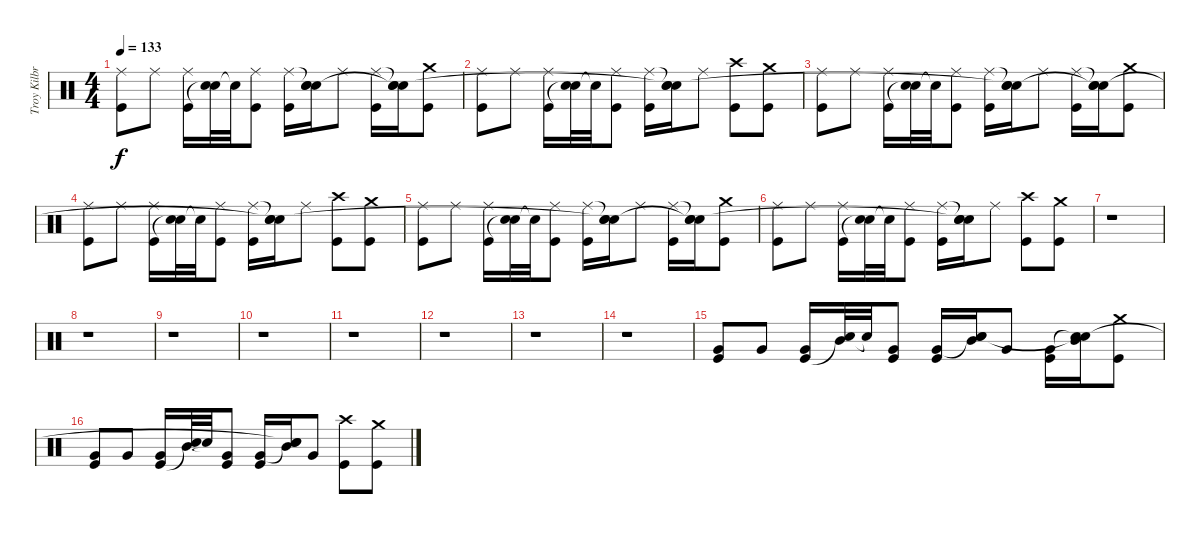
\track ("Troy Kilbride" "Troy Kilbr") {instrument percussion}
\staff {score}
\articulation defaults
\ts (4 4)
\tempo 133
\clef neutral
\ks c
("Ride (middle)" "Kick (hit)").8{dy f} "Ride (middle)".8 ("Ride (middle)" "Kick (hit)").16 ("Electric Snare (hit)" "Snare (hit)"{t}).32 "Snare (hit)"{t}.32 ("Ride (middle)" "Kick (hit)").8 ("Ride (middle)" "Kick (hit)").16 ("Snare (hit)"{t} "Electric Snare (hit)" "Snare (hit)"{t}).16 "Ride (middle)".8 ("Ride (middle)" "Kick (hit)").16 ("Snare (hit)"{t} "Electric Snare (hit)" "Snare (hit)"{t}).16 ("Crash medium (hit)" "Kick (hit)").8 |
("Ride (middle)" "Kick (hit)").8 "Ride (middle)".8 ("Ride (middle)" "Kick (hit)").16 ("Electric Snare (hit)" "Snare (hit)"{t}).32 "Snare (hit)"{t}.32 ("Ride (middle)" "Kick (hit)").8 ("Ride (middle)" "Kick (hit)").16 ("Snare (hit)"{t} "Electric Snare (hit)" "Snare (hit)"{t}).16 "Ride (middle)".8 ("Crash high (hit)" "Kick (hit)").8 ("Crash medium (hit)" "Kick (hit)").8 |
("Ride (middle)" "Kick (hit)").8 "Ride (middle)".8 ("Ride (middle)" "Kick (hit)").16 ("Electric Snare (hit)" "Snare (hit)"{t}).32 "Snare (hit)"{t}.32 ("Ride (middle)" "Kick (hit)").8 ("Ride (middle)" "Kick (hit)").16 ("Snare (hit)"{t} "Electric Snare (hit)" "Snare (hit)"{t}).16 "Ride (middle)".8 ("Ride (middle)" "Kick (hit)").16 ("Snare (hit)"{t} "Electric Snare (hit)" "Snare (hit)"{t}).16 ("Crash medium (hit)" "Kick (hit)").8 |
("Ride (middle)" "Kick (hit)").8 "Ride (middle)".8 ("Ride (middle)" "Kick (hit)").16 ("Electric Snare (hit)" "Snare (hit)"{t}).32 "Snare (hit)"{t}.32 ("Ride (middle)" "Kick (hit)").8 ("Ride (middle)" "Kick (hit)").16 ("Snare (hit)"{t} "Electric Snare (hit)" "Snare (hit)"{t}).16 "Ride (middle)".8 ("Crash high (hit)" "Kick (hit)").8 ("Crash medium (hit)" "Kick (hit)").8 |
("Ride (middle)" "Kick (hit)").8 "Ride (middle)".8 ("Ride (middle)" "Kick (hit)").16 ("Electric Snare (hit)" "Snare (hit)"{t}).32 "Snare (hit)"{t}.32 ("Ride (middle)" "Kick (hit)").8 ("Ride (middle)" "Kick (hit)").16 ("Snare (hit)"{t} "Electric Snare (hit)" "Snare (hit)"{t}).16 "Ride (middle)".8 ("Ride (middle)" "Kick (hit)").16 ("Snare (hit)"{t} "Electric Snare (hit)" "Snare (hit)"{t}).16 ("Crash medium (hit)" "Kick (hit)").8 |
("Ride (middle)" "Kick (hit)").8 "Ride (middle)".8 ("Ride (middle)" "Kick (hit)").16 ("Electric Snare (hit)" "Snare (hit)"{t}).32 "Snare (hit)"{t}.32 ("Ride (middle)" "Kick (hit)").8 ("Ride (middle)" "Kick (hit)").16 ("Snare (hit)"{t} "Electric Snare (hit)" "Snare (hit)"{t}).16 "Ride (middle)".8 ("Crash high (hit)" "Kick (hit)").8 ("Crash medium (hit)" "Kick (hit)").8 |
r.1 |
r.1 |
r.1 |
r.1 |
r.1 |
r.1 |
r.1 |
r.1 |
("Very Low Tom (hit)" "Kick (hit)").8 "Very Low Tom (hit)".8 ("Very Low Tom (hit)" "Kick (hit)").16 ("Mid Tom (hit)" "Snare (hit)"{t}).32 "Snare (hit)"{t}.32 ("Very Low Tom (hit)" "Kick (hit)").8 ("Very Low Tom (hit)" "Kick (hit)").16 ("Snare (hit)"{t} "Mid Tom (hit)" "Snare (hit)").16 "Very Low Tom (hit)".8 ("Very Low Tom (hit)" "Kick (hit)").16 ("Snare (hit)"{t} "Mid Tom (hit)" "Snare (hit)"{t}).16 ("Crash medium (hit)" "Kick (hit)").8 |
("Very Low Tom (hit)" "Kick (hit)").8 "Very Low Tom (hit)".8 ("Very Low Tom (hit)" "Kick (hit)").16 ("Mid Tom (hit)" "Snare (hit)"{t}).32 "Snare (hit)"{t}.32 ("Very Low Tom (hit)" "Kick (hit)").8 ("Very Low Tom (hit)" "Kick (hit)").16 ("Snare (hit)"{t} "Mid Tom (hit)" "Snare (hit)"{t}).16 "Very Low Tom (hit)".8 ("Crash high (hit)" "Kick (hit)").8 ("Crash medium (hit)" "Kick (hit)").8
